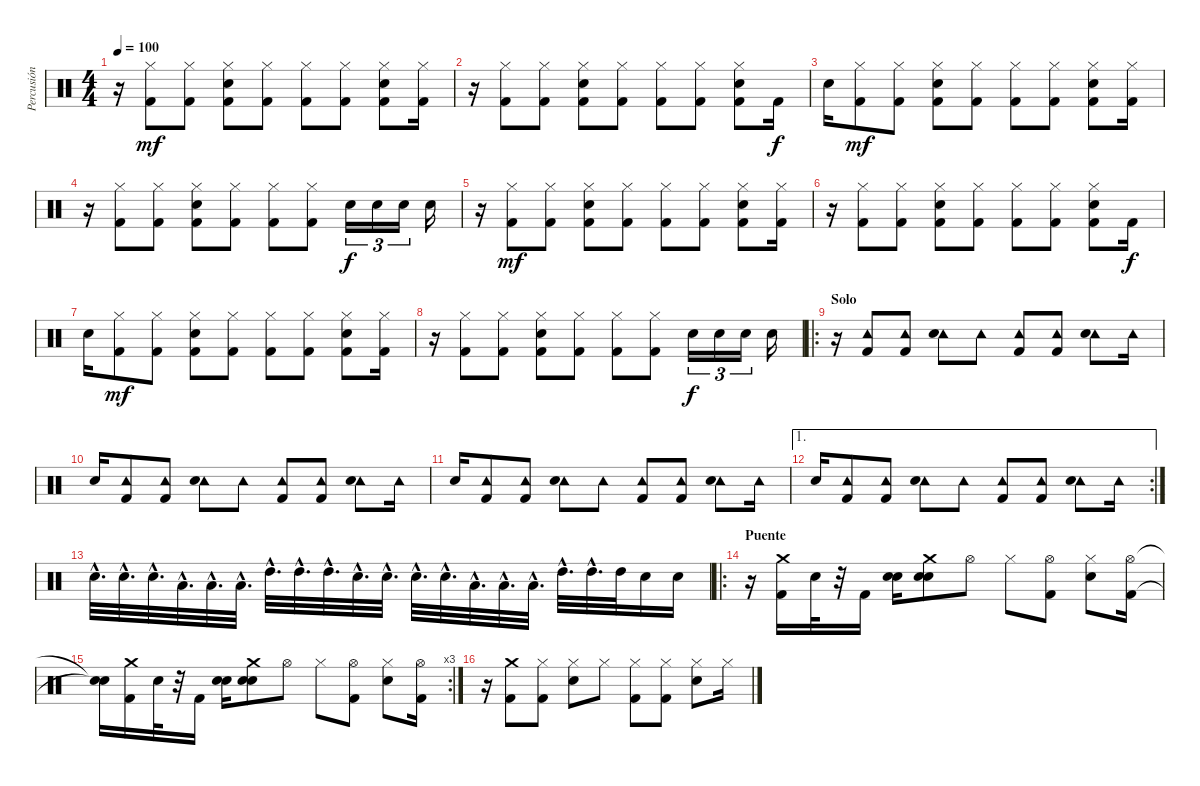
\track ("Percusión" "Percusión") {instrument percussion}
\staff {score}
\articulation defaults
\ts (4 4)
\tempo 100
\clef neutral
\ks c
r.16{dy f} ("Hi-Hat (closed)" "Kick (hit) 2").8{dy mf} ("Hi-Hat (closed)" "Kick (hit) 2").8 ("Hi-Hat (closed)" "Electric Snare (hit)" "Kick (hit) 2").8 ("Hi-Hat (closed)" "Kick (hit) 2").8 ("Hi-Hat (closed)" "Kick (hit) 2").8 ("Hi-Hat (closed)" "Kick (hit) 2").8 ("Hi-Hat (closed)" "Electric Snare (hit)" "Kick (hit) 2").8 ("Hi-Hat (closed)" "Kick (hit) 2").16 |
r.16 ("Hi-Hat (closed)" "Kick (hit) 2").8 ("Hi-Hat (closed)" "Kick (hit) 2").8 ("Hi-Hat (closed)" "Electric Snare (hit)" "Kick (hit) 2").8 ("Hi-Hat (closed)" "Kick (hit) 2").8 ("Hi-Hat (closed)" "Kick (hit) 2").8 ("Hi-Hat (closed)" "Kick (hit) 2").8 ("Hi-Hat (closed)" "Electric Snare (hit)" "Kick (hit) 2").8 "Kick (hit) 2".16{dy f} |
"Electric Snare (hit)".16 ("Hi-Hat (closed)" "Kick (hit) 2").8{dy mf} ("Hi-Hat (closed)" "Kick (hit) 2").8 ("Hi-Hat (closed)" "Electric Snare (hit)" "Kick (hit) 2").8 ("Hi-Hat (closed)" "Kick (hit) 2").8 ("Hi-Hat (closed)" "Kick (hit) 2").8 ("Hi-Hat (closed)" "Kick (hit) 2").8 ("Hi-Hat (closed)" "Electric Snare (hit)" "Kick (hit) 2").8 ("Hi-Hat (closed)" "Kick (hit) 2").16 |
r.16 ("Hi-Hat (closed)" "Kick (hit) 2").8 ("Hi-Hat (closed)" "Kick (hit) 2").8 ("Hi-Hat (closed)" "Electric Snare (hit)" "Kick (hit) 2").8 ("Hi-Hat (closed)" "Kick (hit) 2").8 ("Hi-Hat (closed)" "Kick (hit) 2").8 ("Hi-Hat (closed)" "Kick (hit) 2").8 "Electric Snare (hit)".16{tu (3 2) dy f} "Electric Snare (hit)".16{tu (3 2)} "Electric Snare (hit)".16{tu (3 2)} "Electric Snare (hit)".16 |
r.16 ("Hi-Hat (closed)" "Kick (hit) 2").8{dy mf} ("Hi-Hat (closed)" "Kick (hit) 2").8 ("Hi-Hat (closed)" "Electric Snare (hit)" "Kick (hit) 2").8 ("Hi-Hat (closed)" "Kick (hit) 2").8 ("Hi-Hat (closed)" "Kick (hit) 2").8 ("Hi-Hat (closed)" "Kick (hit) 2").8 ("Hi-Hat (closed)" "Electric Snare (hit)" "Kick (hit) 2").8 ("Hi-Hat (closed)" "Kick (hit) 2").16 |
r.16 ("Hi-Hat (closed)" "Kick (hit) 2").8 ("Hi-Hat (closed)" "Kick (hit) 2").8 ("Hi-Hat (closed)" "Electric Snare (hit)" "Kick (hit) 2").8 ("Hi-Hat (closed)" "Kick (hit) 2").8 ("Hi-Hat (closed)" "Kick (hit) 2").8 ("Hi-Hat (closed)" "Kick (hit) 2").8 ("Hi-Hat (closed)" "Electric Snare (hit)" "Kick (hit) 2").8 "Kick (hit) 2".16{dy f} |
"Electric Snare (hit)".16 ("Hi-Hat (closed)" "Kick (hit) 2").8{dy mf} ("Hi-Hat (closed)" "Kick (hit) 2").8 ("Hi-Hat (closed)" "Electric Snare (hit)" "Kick (hit) 2").8 ("Hi-Hat (closed)" "Kick (hit) 2").8 ("Hi-Hat (closed)" "Kick (hit) 2").8 ("Hi-Hat (closed)" "Kick (hit) 2").8 ("Hi-Hat (closed)" "Electric Snare (hit)" "Kick (hit) 2").8 ("Hi-Hat (closed)" "Kick (hit) 2").16 |
r.16 ("Hi-Hat (closed)" "Kick (hit) 2").8 ("Hi-Hat (closed)" "Kick (hit) 2").8 ("Hi-Hat (closed)" "Electric Snare (hit)" "Kick (hit) 2").8 ("Hi-Hat (closed)" "Kick (hit) 2").8 ("Hi-Hat (closed)" "Kick (hit) 2").8 ("Hi-Hat (closed)" "Kick (hit) 2").8 "Electric Snare (hit)".16{tu (3 2) dy f} "Electric Snare (hit)".16{tu (3 2)} "Electric Snare (hit)".16{tu (3 2)} "Electric Snare (hit)".16 |
\ro
\section ("" "Solo")
r.16 ("Tambourine (hit)" "Kick (hit) 2").8 ("Tambourine (hit)" "Kick (hit) 2").8 ("Tambourine (hit)" "Electric Snare (hit)").8 "Tambourine (hit)".8 ("Tambourine (hit)" "Kick (hit) 2").8 ("Tambourine (hit)" "Kick (hit) 2").8 ("Tambourine (hit)" "Electric Snare (hit)").8 "Tambourine (hit)".16 |
"Electric Snare (hit)".16 ("Tambourine (hit)" "Kick (hit) 2").8 ("Tambourine (hit)" "Kick (hit) 2").8 ("Tambourine (hit)" "Electric Snare (hit)").8 "Tambourine (hit)".8 ("Tambourine (hit)" "Kick (hit) 2").8 ("Tambourine (hit)" "Kick (hit) 2").8 ("Tambourine (hit)" "Electric Snare (hit)").8 "Tambourine (hit)".16 |
"Electric Snare (hit)".16 ("Tambourine (hit)" "Kick (hit) 2").8 ("Tambourine (hit)" "Kick (hit) 2").8 ("Tambourine (hit)" "Electric Snare (hit)").8 "Tambourine (hit)".8 ("Tambourine (hit)" "Kick (hit) 2").8 ("Tambourine (hit)" "Kick (hit) 2").8 ("Tambourine (hit)" "Electric Snare (hit)").8 "Tambourine (hit)".16 |
\ae 1
\rc 2 "Electric Snare (hit)".16
("Tambourine (hit)" "Kick (hit) 2").8 ("Tambourine (hit)" "Kick (hit) 2").8 ("Tambourine (hit)" "Electric Snare (hit)").8 "Tambourine (hit)".8 ("Tambourine (hit)" "Kick (hit) 2").8 ("Tambourine (hit)" "Kick (hit) 2").8 ("Tambourine (hit)" "Electric Snare (hit)").8 "Tambourine (hit)".16 |
"Electric Snare (hit)"{hac}.32{d} "Electric Snare (hit)"{hac}.32{d} "Electric Snare (hit)"{hac}.32{d} "Low Tom (hit)"{hac}.32{d} "Low Tom (hit)"{hac}.32{d} "Low Tom (hit)"{hac}.32{d} "High Tom (hit)"{hac}.32{d} "High Tom (hit)"{hac}.32{d} "High Tom (hit)"{hac}.32{d} "Electric Snare (hit)"{hac}.32{d} "Electric Snare (hit)"{hac}.32{d} "Electric Snare (hit)"{hac}.32{d} "Electric Snare (hit)"{hac}.32{d} "Low Tom (hit)"{hac}.32{d} "Low Tom (hit)"{hac}.32{d} "Low Tom (hit)"{hac}.32{d} "High Tom (hit)"{hac}.32{d} "High Tom (hit)"{hac}.32{d} "High Tom (hit)".32 "Electric Snare (hit)".16 "Electric Snare (hit)".16 |
\ro
\section ("" "Puente")
r.16 ("Crash medium (hit)" "Kick (hit) 2").16 "Electric Snare (hit)".32 r.32 "Kick (hit) 2".16 ("Electric Snare (hit)" "Electric Snare (hit)").16 ("Crash medium (hit)" "Electric Snare (hit)" "Electric Snare (hit)").8 "Hi-Hat (open)".8 "Hi-Hat (closed)".8 ("Hi-Hat (open)" "Kick (hit) 2").8 ("Hi-Hat (closed)" "Electric Snare (hit)").8 ("Hi-Hat (open)" "Kick (hit) 2").16 |
\rc 3
("Snare (hit)"{t} "Snare (hit)"{t}).16 ("Crash medium (hit)" "Kick (hit) 2").16 "Electric Snare (hit)".32 r.32 "Kick (hit) 2".16 ("Electric Snare (hit)" "Electric Snare (hit)").16 ("Crash medium (hit)" "Electric Snare (hit)" "Electric Snare (hit)").8 "Hi-Hat (open)".8 "Hi-Hat (closed)".8 ("Hi-Hat (open)" "Kick (hit) 2").8 ("Hi-Hat (closed)" "Electric Snare (hit)").8 ("Hi-Hat (open)" "Kick (hit) 2").16 |
r.16 ("Crash medium (hit)" "Kick (hit) 2").8 ("Hi-Hat (closed)" "Kick (hit) 2").8 ("Hi-Hat (closed)" "Electric Snare (hit)").8 "Hi-Hat (closed)".8 ("Hi-Hat (closed)" "Kick (hit) 2").8 ("Hi-Hat (closed)" "Kick (hit) 2").8 ("Hi-Hat (closed)" "Electric Snare (hit)").8 "Hi-Hat (closed)".16
